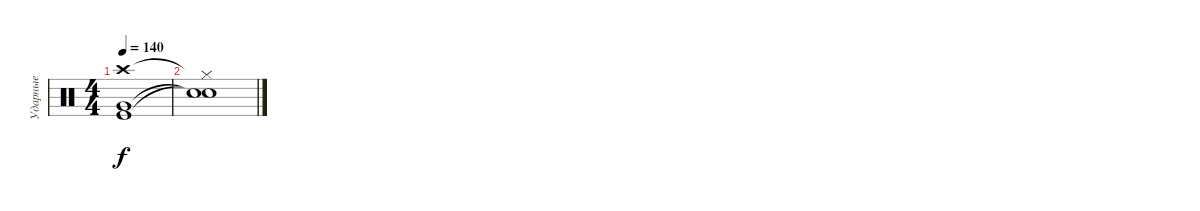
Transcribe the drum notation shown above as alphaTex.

\track ("Ударные" "Ударные") {instrument percussion}
\staff {score}
\articulation defaults
\ts (4 4)
\tempo 140
\clef neutral
\ks c
("Crash high (hit)" "Very Low Tom (hit)" "Kick (hit)").1{dy f} |
("Hi-Hat (closed)"{t} "Snare (hit)"{t} "Snare (hit)"{t}).1
